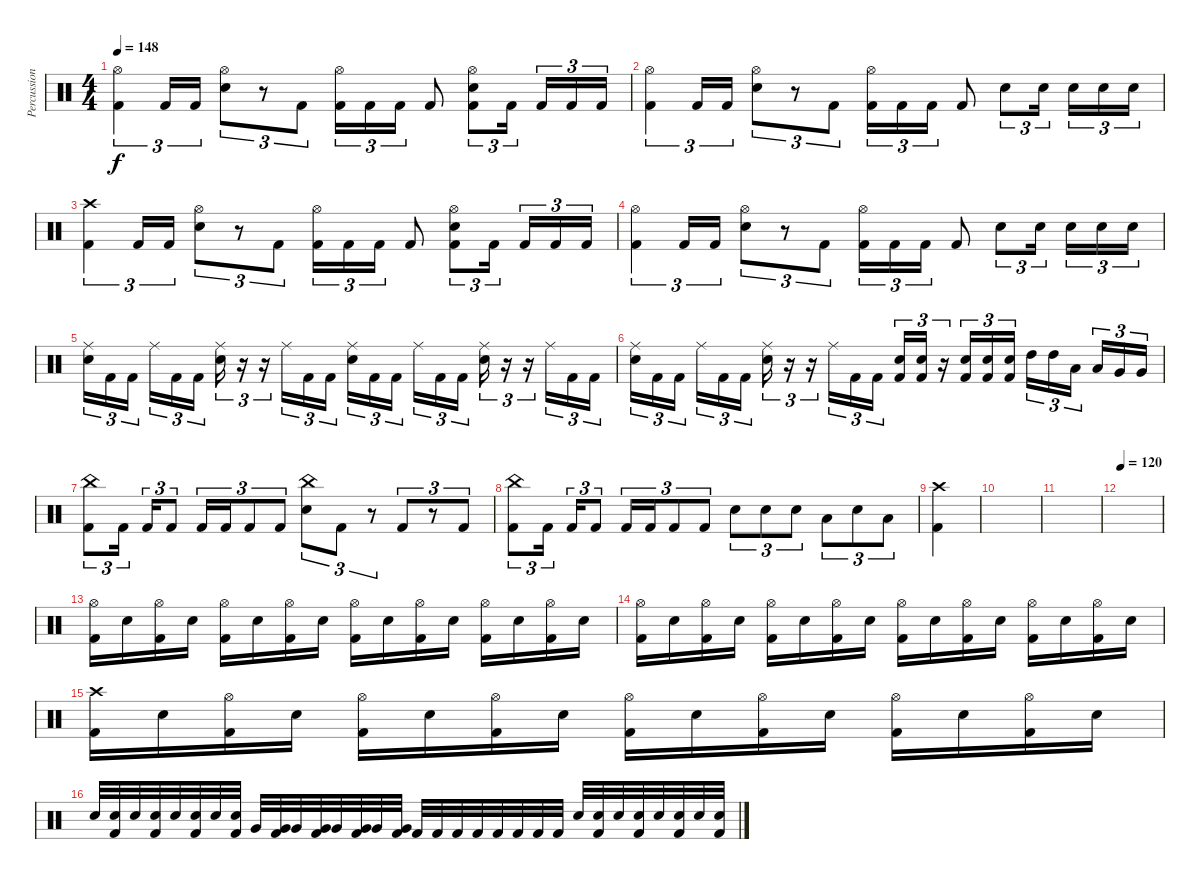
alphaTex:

\track ("Percussion" "Percussion") {instrument percussion}
\staff {score}
\articulation defaults
\ts (4 4)
\tempo 148
\clef neutral
\ks c
("Hi-Hat (open)" "Kick (hit) 2").4{tu (3 2) dy f} "Kick (hit) 2".16{tu (3 2)} "Kick (hit) 2".16{tu (3 2)} ("Hi-Hat (open)" "Electric Snare (hit)").8{tu (3 2)} r.8{tu (3 2)} "Kick (hit) 2".8{tu (3 2)} ("Hi-Hat (open)" "Kick (hit) 2").16{tu (3 2)} "Kick (hit) 2".16{tu (3 2)} "Kick (hit) 2".16{tu (3 2)} "Kick (hit) 2".8 ("Hi-Hat (open)" "Electric Snare (hit)" "Kick (hit) 2").8{tu (3 2)} "Kick (hit) 2".16{tu (3 2)} "Kick (hit) 2".16{tu (3 2)} "Kick (hit) 2".16{tu (3 2)} "Kick (hit) 2".16{tu (3 2)} |
("Hi-Hat (open)" "Kick (hit) 2").4{tu (3 2)} "Kick (hit) 2".16{tu (3 2)} "Kick (hit) 2".16{tu (3 2)} ("Hi-Hat (open)" "Electric Snare (hit)").8{tu (3 2)} r.8{tu (3 2)} "Kick (hit) 2".8{tu (3 2)} ("Hi-Hat (open)" "Kick (hit) 2").16{tu (3 2)} "Kick (hit) 2".16{tu (3 2)} "Kick (hit) 2".16{tu (3 2)} "Kick (hit) 2".8 "Electric Snare (hit)".8{tu (3 2)} "Electric Snare (hit)".16{tu (3 2)} "Electric Snare (hit)".16{tu (3 2)} "Electric Snare (hit)".16{tu (3 2)} "Electric Snare (hit)".16{tu (3 2)} |
("Crash high (hit)" "Kick (hit) 2").4{tu (3 2)} "Kick (hit) 2".16{tu (3 2)} "Kick (hit) 2".16{tu (3 2)} ("Hi-Hat (open)" "Electric Snare (hit)").8{tu (3 2)} r.8{tu (3 2)} "Kick (hit) 2".8{tu (3 2)} ("Hi-Hat (open)" "Kick (hit) 2").16{tu (3 2)} "Kick (hit) 2".16{tu (3 2)} "Kick (hit) 2".16{tu (3 2)} "Kick (hit) 2".8 ("Hi-Hat (open)" "Electric Snare (hit)" "Kick (hit) 2").8{tu (3 2)} "Kick (hit) 2".16{tu (3 2)} "Kick (hit) 2".16{tu (3 2)} "Kick (hit) 2".16{tu (3 2)} "Kick (hit) 2".16{tu (3 2)} |
("Hi-Hat (open)" "Kick (hit) 2").4{tu (3 2)} "Kick (hit) 2".16{tu (3 2)} "Kick (hit) 2".16{tu (3 2)} ("Hi-Hat (open)" "Electric Snare (hit)").8{tu (3 2)} r.8{tu (3 2)} "Kick (hit) 2".8{tu (3 2)} ("Hi-Hat (open)" "Kick (hit) 2").16{tu (3 2)} "Kick (hit) 2".16{tu (3 2)} "Kick (hit) 2".16{tu (3 2)} "Kick (hit) 2".8 "Electric Snare (hit)".8{tu (3 2)} "Electric Snare (hit)".16{tu (3 2)} "Electric Snare (hit)".16{tu (3 2)} "Electric Snare (hit)".16{tu (3 2)} "Electric Snare (hit)".16{tu (3 2)} |
("Ride (middle)" "Electric Snare (hit)").16{tu (3 2)} "Kick (hit) 2".16{tu (3 2)} "Kick (hit) 2".16{tu (3 2)} "Ride (middle)".16{tu (3 2)} "Kick (hit) 2".16{tu (3 2)} "Kick (hit) 2".16{tu (3 2)} ("Ride (middle)" "Electric Snare (hit)").16{tu (3 2)} r.16{tu (3 2)} r.16{tu (3 2)} "Ride (middle)".16{tu (3 2)} "Kick (hit) 2".16{tu (3 2)} "Kick (hit) 2".16{tu (3 2)} ("Ride (middle)" "Electric Snare (hit)").16{tu (3 2)} "Kick (hit) 2".16{tu (3 2)} "Kick (hit) 2".16{tu (3 2)} "Ride (middle)".16{tu (3 2)} "Kick (hit) 2".16{tu (3 2)} "Kick (hit) 2".16{tu (3 2)} ("Ride (middle)" "Electric Snare (hit)").16{tu (3 2)} r.16{tu (3 2)} r.16{tu (3 2)} "Ride (middle)".16{tu (3 2)} "Kick (hit) 2".16{tu (3 2)} "Kick (hit) 2".16{tu (3 2)} |
("Ride (middle)" "Electric Snare (hit)").16{tu (3 2)} "Kick (hit) 2".16{tu (3 2)} "Kick (hit) 2".16{tu (3 2)} "Ride (middle)".16{tu (3 2)} "Kick (hit) 2".16{tu (3 2)} "Kick (hit) 2".16{tu (3 2)} ("Ride (middle)" "Electric Snare (hit)").16{tu (3 2)} r.16{tu (3 2)} r.16{tu (3 2)} "Ride (middle)".16{tu (3 2)} "Kick (hit) 2".16{tu (3 2)} "Kick (hit) 2".16{tu (3 2)} ("Electric Snare (hit)" "Kick (hit) 2").16{tu (3 2)} ("Electric Snare (hit)" "Kick (hit) 2").16{tu (3 2)} r.16{tu (3 2)} ("Electric Snare (hit)" "Kick (hit) 2").16{tu (3 2)} ("Electric Snare (hit)" "Kick (hit) 2").16{tu (3 2)} ("Electric Snare (hit)" "Kick (hit) 2").16{tu (3 2)} "High Tom (hit)".16{tu (3 2)} "High Tom (hit)".16{tu (3 2)} "Low Tom (hit)".16{tu (3 2)} "Low Tom (hit)".16{tu (3 2)} "Very Low Tom (hit)".16{tu (3 2)} "Very Low Tom (hit)".16{tu (3 2)} |
("China (hit)" "Kick (hit) 2").8{tu (3 2)} "Kick (hit) 2".16{tu (3 2)} "Kick (hit) 2".16{tu (3 2)} "Kick (hit) 2".8{tu (3 2)} "Kick (hit) 2".16{tu (3 2)} "Kick (hit) 2".16{tu (3 2)} "Kick (hit) 2".8{tu (3 2)} "Kick (hit) 2".8{tu (3 2)} ("China (hit)" "Electric Snare (hit)").8{tu (3 2)} "Kick (hit) 2".8{tu (3 2)} r.8{tu (3 2)} "Kick (hit) 2".8{tu (3 2)} r.8{tu (3 2)} "Kick (hit) 2".8{tu (3 2)} |
("China (hit)" "Kick (hit) 2").8{tu (3 2)} "Kick (hit) 2".16{tu (3 2)} "Kick (hit) 2".16{tu (3 2)} "Kick (hit) 2".8{tu (3 2)} "Kick (hit) 2".16{tu (3 2)} "Kick (hit) 2".16{tu (3 2)} "Kick (hit) 2".8{tu (3 2)} "Kick (hit) 2".8{tu (3 2)} "Electric Snare (hit)".8{tu (3 2)} "Electric Snare (hit)".8{tu (3 2)} "Electric Snare (hit)".8{tu (3 2)} "Low Tom (hit)".8{tu (3 2)} "Electric Snare (hit)".8{tu (3 2)} "Low Tom (hit)".8{tu (3 2)} |
("Crash high (hit)" "Kick (hit) 2").4 |
|
|
\tempo 120
|
("Hi-Hat (open)" "Kick (hit) 2").16 "Electric Snare (hit)".16 ("Hi-Hat (open)" "Kick (hit) 2").16 "Electric Snare (hit)".16 ("Hi-Hat (open)" "Kick (hit) 2").16 "Electric Snare (hit)".16 ("Hi-Hat (open)" "Kick (hit) 2").16 "Electric Snare (hit)".16 ("Hi-Hat (open)" "Kick (hit) 2").16 "Electric Snare (hit)".16 ("Hi-Hat (open)" "Kick (hit) 2").16 "Electric Snare (hit)".16 ("Hi-Hat (open)" "Kick (hit) 2").16 "Electric Snare (hit)".16 ("Hi-Hat (open)" "Kick (hit) 2").16 "Electric Snare (hit)".16 |
("Hi-Hat (open)" "Kick (hit) 2").16 "Electric Snare (hit)".16 ("Hi-Hat (open)" "Kick (hit) 2").16 "Electric Snare (hit)".16 ("Hi-Hat (open)" "Kick (hit) 2").16 "Electric Snare (hit)".16 ("Hi-Hat (open)" "Kick (hit) 2").16 "Electric Snare (hit)".16 ("Hi-Hat (open)" "Kick (hit) 2").16 "Electric Snare (hit)".16 ("Hi-Hat (open)" "Kick (hit) 2").16 "Electric Snare (hit)".16 ("Hi-Hat (open)" "Kick (hit) 2").16 "Electric Snare (hit)".16 ("Hi-Hat (open)" "Kick (hit) 2").16 "Electric Snare (hit)".16 |
("Crash high (hit)" "Kick (hit) 2").16 "Electric Snare (hit)".16 ("Hi-Hat (open)" "Kick (hit) 2").16 "Electric Snare (hit)".16 ("Hi-Hat (open)" "Kick (hit) 2").16 "Electric Snare (hit)".16 ("Hi-Hat (open)" "Kick (hit) 2").16 "Electric Snare (hit)".16 ("Hi-Hat (open)" "Kick (hit) 2").16 "Electric Snare (hit)".16 ("Hi-Hat (open)" "Kick (hit) 2").16 "Electric Snare (hit)".16 ("Hi-Hat (open)" "Kick (hit) 2").16 "Electric Snare (hit)".16 ("Hi-Hat (open)" "Kick (hit) 2").16 "Electric Snare (hit)".16 |
"Electric Snare (hit)".32 ("Electric Snare (hit)" "Kick (hit) 2").32 "Electric Snare (hit)".32 ("Electric Snare (hit)" "Kick (hit) 2").32 "Electric Snare (hit)".32 ("Electric Snare (hit)" "Kick (hit) 2").32 "Electric Snare (hit)".32 ("Electric Snare (hit)" "Kick (hit) 2").32 "Very Low Tom (hit)".32 ("Very Low Tom (hit)" "Kick (hit) 2").32 "Very Low Tom (hit)".32 ("Very Low Tom (hit)" "Kick (hit) 2").32 "Very Low Tom (hit)".32 ("Very Low Tom (hit)" "Kick (hit) 2").32 "Very Low Tom (hit)".32 ("Very Low Tom (hit)" "Kick (hit) 2").32 "Kick (hit) 2".32 "Kick (hit) 2".32 "Kick (hit) 2".32 "Kick (hit) 2".32 "Kick (hit) 2".32 "Kick (hit) 2".32 "Kick (hit) 2".32 "Kick (hit) 2".32 "Electric Snare (hit)".32 ("Electric Snare (hit)" "Kick (hit) 2").32 "Electric Snare (hit)".32 ("Electric Snare (hit)" "Kick (hit) 2").32 "Electric Snare (hit)".32 ("Electric Snare (hit)" "Kick (hit) 2").32 "Electric Snare (hit)".32 ("Electric Snare (hit)" "Kick (hit) 2").32
